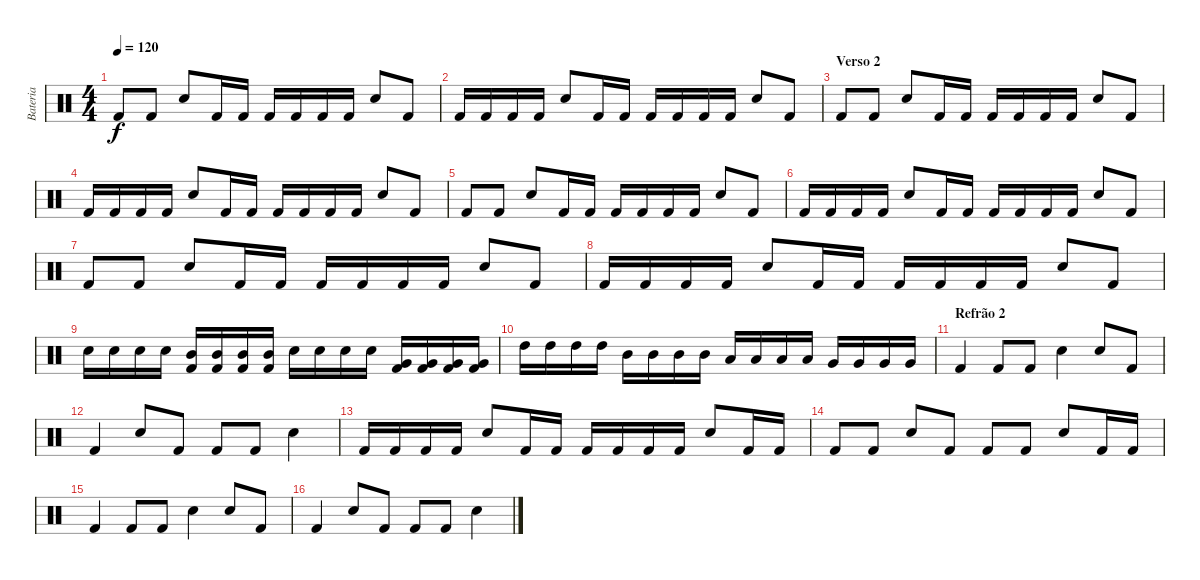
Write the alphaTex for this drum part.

\track ("Bateria" "Bateria") {instrument percussion}
\staff {score}
\articulation defaults
\ts (4 4)
\tempo 120
\clef neutral
\ks c "Kick (hit) 2".8{dy f} "Kick (hit) 2".8 "Snare (hit) 2".8 "Kick (hit) 2".16 "Kick (hit) 2".16 "Kick (hit) 2".16 "Kick (hit) 2".16 "Kick (hit) 2".16 "Kick (hit) 2".16 "Snare (hit) 2".8 "Kick (hit) 2".8
|
"Kick (hit) 2".16 "Kick (hit) 2".16 "Kick (hit) 2".16 "Kick (hit) 2".16 "Snare (hit) 2".8 "Kick (hit) 2".16 "Kick (hit) 2".16 "Kick (hit) 2".16 "Kick (hit) 2".16 "Kick (hit) 2".16 "Kick (hit) 2".16 "Snare (hit) 2".8 "Kick (hit) 2".8 |
\section ("" "Verso 2")
"Kick (hit) 2".8 "Kick (hit) 2".8 "Snare (hit) 2".8 "Kick (hit) 2".16 "Kick (hit) 2".16 "Kick (hit) 2".16 "Kick (hit) 2".16 "Kick (hit) 2".16 "Kick (hit) 2".16 "Snare (hit) 2".8 "Kick (hit) 2".8 |
"Kick (hit) 2".16 "Kick (hit) 2".16 "Kick (hit) 2".16 "Kick (hit) 2".16 "Snare (hit) 2".8 "Kick (hit) 2".16 "Kick (hit) 2".16 "Kick (hit) 2".16 "Kick (hit) 2".16 "Kick (hit) 2".16 "Kick (hit) 2".16 "Snare (hit) 2".8 "Kick (hit) 2".8 |
"Kick (hit) 2".8 "Kick (hit) 2".8 "Snare (hit) 2".8 "Kick (hit) 2".16 "Kick (hit) 2".16 "Kick (hit) 2".16 "Kick (hit) 2".16 "Kick (hit) 2".16 "Kick (hit) 2".16 "Snare (hit) 2".8 "Kick (hit) 2".8 |
"Kick (hit) 2".16 "Kick (hit) 2".16 "Kick (hit) 2".16 "Kick (hit) 2".16 "Snare (hit) 2".8 "Kick (hit) 2".16 "Kick (hit) 2".16 "Kick (hit) 2".16 "Kick (hit) 2".16 "Kick (hit) 2".16 "Kick (hit) 2".16 "Snare (hit) 2".8 "Kick (hit) 2".8 |
"Kick (hit) 2".8 "Kick (hit) 2".8 "Snare (hit) 2".8 "Kick (hit) 2".16 "Kick (hit) 2".16 "Kick (hit) 2".16 "Kick (hit) 2".16 "Kick (hit) 2".16 "Kick (hit) 2".16 "Snare (hit) 2".8 "Kick (hit) 2".8 |
"Kick (hit) 2".16 "Kick (hit) 2".16 "Kick (hit) 2".16 "Kick (hit) 2".16 "Snare (hit) 2".8 "Kick (hit) 2".16 "Kick (hit) 2".16 "Kick (hit) 2".16 "Kick (hit) 2".16 "Kick (hit) 2".16 "Kick (hit) 2".16 "Snare (hit) 2".8 "Kick (hit) 2".8 |
"Snare (hit) 2".16 "Snare (hit) 2".16 "Snare (hit) 2".16 "Snare (hit) 2".16 ("Kick (hit) 2" "Mid Tom (hit)").16 ("Kick (hit) 2" "Mid Tom (hit)").16 ("Kick (hit) 2" "Mid Tom (hit)").16 ("Kick (hit) 2" "Mid Tom (hit)").16 "Snare (hit) 2".16 "Snare (hit) 2".16 "Snare (hit) 2".16 "Snare (hit) 2".16 ("Kick (hit) 2" "Very Low Tom (hit)").16 ("Kick (hit) 2" "Very Low Tom (hit)").16 ("Kick (hit) 2" "Very Low Tom (hit)").16 ("Kick (hit) 2" "Very Low Tom (hit)").16 |
"High Tom (hit)".16 "High Tom (hit)".16 "High Tom (hit)".16 "High Tom (hit)".16 "Mid Tom (hit)".16 "Mid Tom (hit)".16 "Mid Tom (hit)".16 "Mid Tom (hit)".16 "Low Tom (hit)".16 "Low Tom (hit)".16 "Low Tom (hit)".16 "Low Tom (hit)".16 "Very Low Tom (hit)".16 "Very Low Tom (hit)".16 "Very Low Tom (hit)".16 "Very Low Tom (hit)".16 |
\section ("" "Refrão 2")
"Kick (hit) 2".4 "Kick (hit) 2".8 "Kick (hit) 2".8 "Snare (hit) 2".4 "Snare (hit) 2".8 "Kick (hit) 2".8 |
"Kick (hit) 2".4 "Snare (hit) 2".8 "Kick (hit) 2".8 "Kick (hit) 2".8 "Kick (hit) 2".8 "Snare (hit) 2".4 |
"Kick (hit) 2".16 "Kick (hit) 2".16 "Kick (hit) 2".16 "Kick (hit) 2".16 "Snare (hit) 2".8 "Kick (hit) 2".16 "Kick (hit) 2".16 "Kick (hit) 2".16 "Kick (hit) 2".16 "Kick (hit) 2".16 "Kick (hit) 2".16 "Snare (hit) 2".8 "Kick (hit) 2".16 "Kick (hit) 2".16 |
"Kick (hit) 2".8 "Kick (hit) 2".8 "Snare (hit) 2".8 "Kick (hit) 2".8 "Kick (hit) 2".8 "Kick (hit) 2".8 "Snare (hit) 2".8 "Kick (hit) 2".16 "Kick (hit) 2".16 |
"Kick (hit) 2".4 "Kick (hit) 2".8 "Kick (hit) 2".8 "Snare (hit) 2".4 "Snare (hit) 2".8 "Kick (hit) 2".8 |
"Kick (hit) 2".4 "Snare (hit) 2".8 "Kick (hit) 2".8 "Kick (hit) 2".8 "Kick (hit) 2".8 "Snare (hit) 2".4
